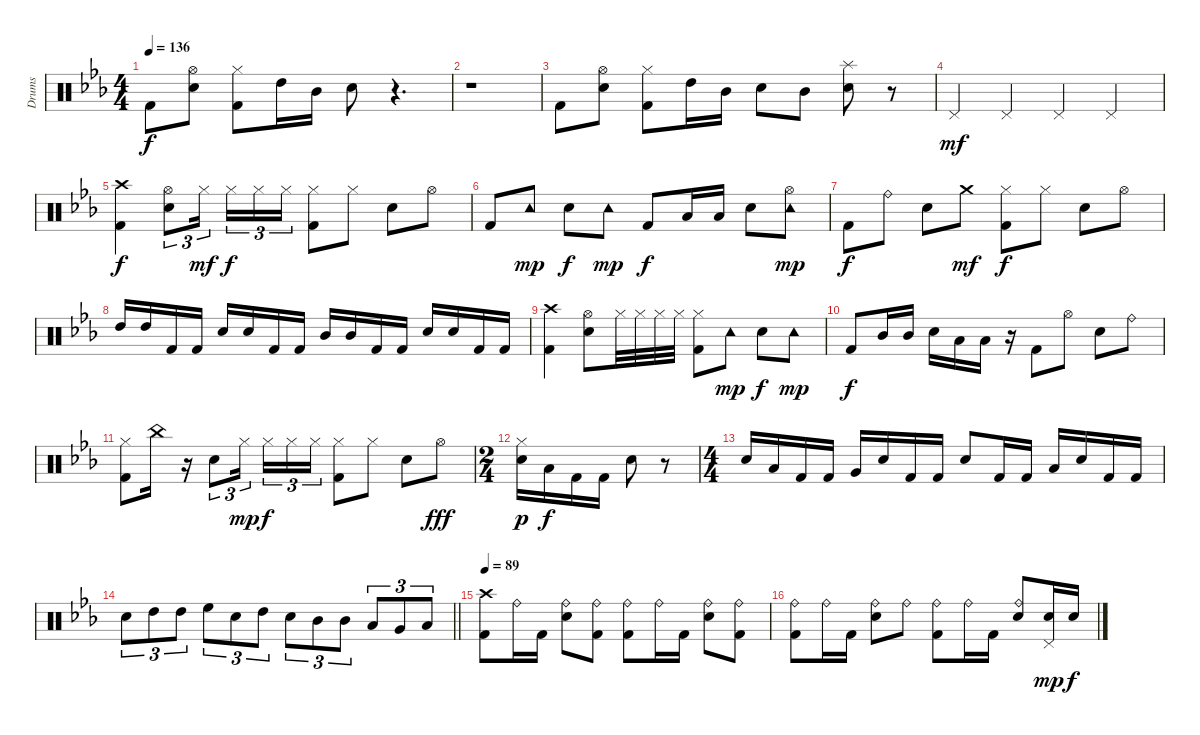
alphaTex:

\track ("Drums" "Drums") {instrument percussion}
\staff {score}
\articulation defaults
\ts (4 4)
\tempo 136
\clef neutral
\ks cminor "Kick (hit) 2".8{dy f}
("Electric Snare (hit)" "Hi-Hat (open)").8 ("Kick (hit) 2" "Hi-Hat (closed)").8 "High Tom (hit)".16 "Mid Tom (hit)".16 "Electric Snare (hit)".8 r.4{d} |
r.1 |
"Kick (hit) 2".8 ("Electric Snare (hit)" "Hi-Hat (open)").8 ("Kick (hit) 2" "Hi-Hat (closed)").8 "High Tom (hit)".16 "Mid Tom (hit)".16 "Electric Snare (hit)".8 "Mid Tom (hit)".8 ("Electric Snare (hit)" "Splash (hit)").8 r.8 |
"Pedal Hi-Hat (hit)".4{dy mf} "Pedal Hi-Hat (hit)".4 "Pedal Hi-Hat (hit)".4 "Pedal Hi-Hat (hit)".4 |
("Kick (hit) 2" "Crash high (hit)").4{dy f} ("Electric Snare (hit)" "Hi-Hat (open)").8{tu (3 2)} "Hi-Hat (closed)".16{tu (3 2) dy mf beam splitsecondary} "Hi-Hat (closed)".16{tu (3 2) dy f} "Hi-Hat (closed)".16{tu (3 2)} "Hi-Hat (closed)".16{tu (3 2)} ("Kick (hit) 2" "Hi-Hat (closed)").8 "Hi-Hat (closed)".8 "Electric Snare (hit)".8 "Hi-Hat (open)".8 |
"Kick (hit) 2".8 "Tambourine (hit)".8{dy mp} "Electric Snare (hit)".8{dy f} "Tambourine (hit)".8{dy mp} "Kick (hit) 2".8{dy f} "Low Tom (hit)".16 "Low Tom (hit)".16 "Electric Snare (hit)".8 ("Hi-Hat (open)" "Tambourine (hit)").8{dy mp} |
"Kick (hit) 2".8{dy f} "Ride (bell)".8 "Electric Snare (hit)".8 "Crash medium (hit)".8{dy mf} ("Kick (hit) 2" "Hi-Hat (closed)").8{dy f} "Hi-Hat (closed)".8 "Electric Snare (hit)".8 "Hi-Hat (open)".8 |
"High Tom (hit)".16 "High Tom (hit)".16 "Kick (hit) 2".16 "Kick (hit) 2".16 "Electric Snare (hit)".16 "Electric Snare (hit)".16 "Kick (hit) 2".16 "Kick (hit) 2".16 "Mid Tom (hit)".16 "Mid Tom (hit)".16 "Kick (hit) 2".16 "Kick (hit) 2".16 "Electric Snare (hit)".16 "Electric Snare (hit)".16 "Kick (hit) 2".16 "Kick (hit) 2".16 |
("Crash high (hit)" "Kick (hit) 2").4 ("Electric Snare (hit)" "Hi-Hat (open)").8 "Hi-Hat (closed)".32 "Hi-Hat (closed)".32 "Hi-Hat (closed)".32 "Hi-Hat (closed)".32 ("Kick (hit) 2" "Hi-Hat (closed)").8 "Tambourine (hit)".8{dy mp} "Electric Snare (hit)".8{dy f} "Tambourine (hit)".8{dy mp} |
"Kick (hit) 2".8{dy f} "Mid Tom (hit)".16 "Mid Tom (hit)".16 "Electric Snare (hit)".16 "Low Tom (hit)".16 "Low Tom (hit)".16 r.16 "Kick (hit) 2".8 "Hi-Hat (open)".8 "Electric Snare (hit)".8 "Ride (bell)".8 |
("Kick (hit) 2" "Hi-Hat (closed)").8 "China (hit)".16 r.16 "Electric Snare (hit)".8{tu (3 2)} "Hi-Hat (closed)".16{tu (3 2) dy mp beam splitsecondary} "Hi-Hat (closed)".16{tu (3 2) dy f} "Hi-Hat (closed)".16{tu (3 2)} "Hi-Hat (closed)".16{tu (3 2)} ("Kick (hit) 2" "Hi-Hat (closed)").8 "Hi-Hat (closed)".8 "Electric Snare (hit)".8 "Hi-Hat (open)".8{dy fff} |
\ts (2 4)
("Electric Snare (hit)" "Hi-Hat (closed)").16{dy p} "Low Tom (hit)".16{dy f} "Kick (hit) 2".16 "Kick (hit) 2".16 "Electric Snare (hit)".8 r.8 |
\ts (4 4)
"Electric Snare (hit)".16 "Low Tom (hit)".16 "Kick (hit) 2".16 "Kick (hit) 2".16 "Very Low Tom (hit)".16 "Electric Snare (hit)".16 "Kick (hit) 2".16 "Kick (hit) 2".16 "Electric Snare (hit)".8 "Kick (hit) 2".16 "Kick (hit) 2".16 "Low Tom (hit)".16 "Electric Snare (hit)".16 "Kick (hit) 2".16 "Kick (hit) 2".16 |
\barLineRight lightlight "Electric Snare (hit)".8{tu (3 2)} "High Tom (hit)".8{tu (3 2)} "High Tom (hit)".8{tu (3 2)} "High Floor Tom (hit)".8{tu (3 2)} "Electric Snare (hit)".8{tu (3 2)} "High Tom (hit)".8{tu (3 2)} "Electric Snare (hit)".8{tu (3 2)} "Mid Tom (hit)".8{tu (3 2)} "Mid Tom (hit)".8{tu (3 2)} "Low Tom (hit)".8{tu (3 2)} "Very Low Tom (hit)".8{tu (3 2)} "Low Floor Tom (hit)".8{tu (3 2)}
|
\tempo 89
("Kick (hit) 2" "Crash high (hit)").8 "Ride (bell)".16 "Kick (hit) 2".16 ("Electric Snare (hit)" "Ride (bell)").8 ("Kick (hit) 2" "Ride (bell)").8 ("Kick (hit) 2" "Ride (bell)").8 "Ride (bell)".16 "Kick (hit) 2".16 ("Electric Snare (hit)" "Ride (bell)").8 ("Kick (hit) 2" "Ride (bell)").8 |
("Kick (hit) 2" "Ride (bell)").8 "Ride (bell)".16 "Kick (hit) 2".16 ("Electric Snare (hit)" "Ride (bell)").8 "Ride (bell)".8 ("Kick (hit) 2" "Ride (bell)").8 "Ride (bell)".16 "Kick (hit) 2".16 ("Electric Snare (hit)" "Ride (bell)").8 ("Electric Snare (hit)" "Pedal Hi-Hat (hit)").16{dy mp} "Electric Snare (hit)".16{dy f}
